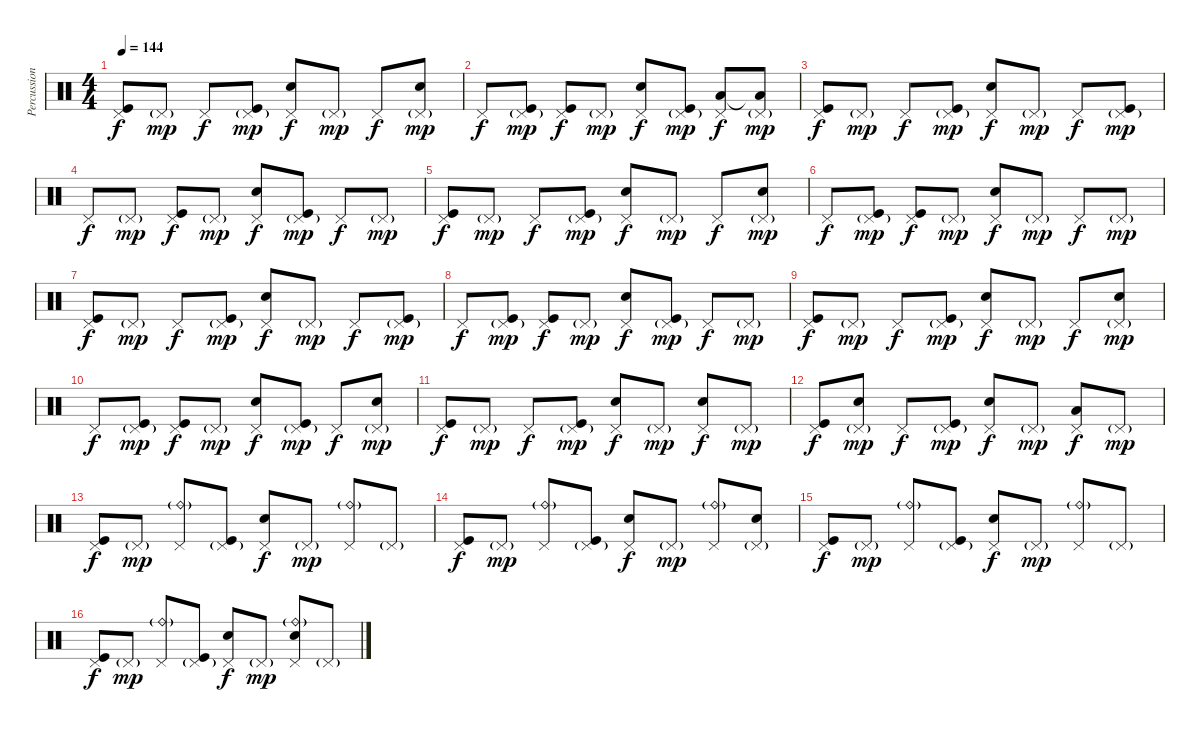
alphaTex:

\track ("Percussion" "Percussion") {instrument percussion}
\staff {score}
\articulation defaults
\ts (4 4)
\tempo 144
\clef neutral
\ks c
("Pedal Hi-Hat (hit)" "Kick (hit)").8{dy f} "Pedal Hi-Hat (hit)"{g}.8{dy mp} "Pedal Hi-Hat (hit)".8{dy f} ("Pedal Hi-Hat (hit)"{g} "Kick (hit)").8{dy mp} ("Pedal Hi-Hat (hit)" "Snare (hit) 2").8{dy f} "Pedal Hi-Hat (hit)"{g}.8{dy mp} "Pedal Hi-Hat (hit)".8{dy f} ("Pedal Hi-Hat (hit)"{g} "Snare (hit) 2").8{dy mp} |
"Pedal Hi-Hat (hit)".8{dy f} ("Pedal Hi-Hat (hit)"{g} "Kick (hit)").8{dy mp} ("Pedal Hi-Hat (hit)" "Kick (hit)").8{dy f} "Pedal Hi-Hat (hit)"{g}.8{dy mp} ("Pedal Hi-Hat (hit)" "Snare (hit) 2").8{dy f} ("Pedal Hi-Hat (hit)"{g} "Kick (hit)").8{dy mp} ("Pedal Hi-Hat (hit)" "Low Tom (hit)").8{dy f} ("Pedal Hi-Hat (hit)"{g} "Low Tom (hit)"{t}).8{dy mp} |
("Pedal Hi-Hat (hit)" "Kick (hit)").8{dy f} "Pedal Hi-Hat (hit)"{g}.8{dy mp} "Pedal Hi-Hat (hit)".8{dy f} ("Pedal Hi-Hat (hit)"{g} "Kick (hit)").8{dy mp} ("Pedal Hi-Hat (hit)" "Snare (hit) 2").8{dy f} "Pedal Hi-Hat (hit)"{g}.8{dy mp} "Pedal Hi-Hat (hit)".8{dy f} ("Pedal Hi-Hat (hit)"{g} "Kick (hit)").8{dy mp} |
"Pedal Hi-Hat (hit)".8{dy f} "Pedal Hi-Hat (hit)"{g}.8{dy mp} ("Pedal Hi-Hat (hit)" "Kick (hit)").8{dy f} "Pedal Hi-Hat (hit)"{g}.8{dy mp} ("Pedal Hi-Hat (hit)" "Snare (hit) 2").8{dy f} ("Pedal Hi-Hat (hit)"{g} "Kick (hit)").8{dy mp} "Pedal Hi-Hat (hit)".8{dy f} "Pedal Hi-Hat (hit)"{g}.8{dy mp} |
("Pedal Hi-Hat (hit)" "Kick (hit)").8{dy f} "Pedal Hi-Hat (hit)"{g}.8{dy mp} "Pedal Hi-Hat (hit)".8{dy f} ("Pedal Hi-Hat (hit)"{g} "Kick (hit)").8{dy mp} ("Pedal Hi-Hat (hit)" "Snare (hit) 2").8{dy f} "Pedal Hi-Hat (hit)"{g}.8{dy mp} "Pedal Hi-Hat (hit)".8{dy f} ("Pedal Hi-Hat (hit)"{g} "Snare (hit) 2").8{dy mp} |
"Pedal Hi-Hat (hit)".8{dy f} ("Pedal Hi-Hat (hit)"{g} "Kick (hit)").8{dy mp} ("Pedal Hi-Hat (hit)" "Kick (hit)").8{dy f} "Pedal Hi-Hat (hit)"{g}.8{dy mp} ("Pedal Hi-Hat (hit)" "Snare (hit) 2").8{dy f} "Pedal Hi-Hat (hit)"{g}.8{dy mp} "Pedal Hi-Hat (hit)".8{dy f} "Pedal Hi-Hat (hit)"{g}.8{dy mp} |
("Pedal Hi-Hat (hit)" "Kick (hit)").8{dy f} "Pedal Hi-Hat (hit)"{g}.8{dy mp} "Pedal Hi-Hat (hit)".8{dy f} ("Pedal Hi-Hat (hit)"{g} "Kick (hit)").8{dy mp} ("Pedal Hi-Hat (hit)" "Snare (hit) 2").8{dy f} "Pedal Hi-Hat (hit)"{g}.8{dy mp} "Pedal Hi-Hat (hit)".8{dy f} ("Pedal Hi-Hat (hit)"{g} "Kick (hit)").8{dy mp} |
"Pedal Hi-Hat (hit)".8{dy f} ("Pedal Hi-Hat (hit)"{g} "Kick (hit)").8{dy mp} ("Pedal Hi-Hat (hit)" "Kick (hit)").8{dy f} "Pedal Hi-Hat (hit)"{g}.8{dy mp} ("Pedal Hi-Hat (hit)" "Snare (hit) 2").8{dy f} ("Pedal Hi-Hat (hit)"{g} "Kick (hit)").8{dy mp} "Pedal Hi-Hat (hit)".8{dy f} "Pedal Hi-Hat (hit)"{g}.8{dy mp} |
("Pedal Hi-Hat (hit)" "Kick (hit)").8{dy f} "Pedal Hi-Hat (hit)"{g}.8{dy mp} "Pedal Hi-Hat (hit)".8{dy f} ("Pedal Hi-Hat (hit)"{g} "Kick (hit)").8{dy mp} ("Pedal Hi-Hat (hit)" "Snare (hit) 2").8{dy f} "Pedal Hi-Hat (hit)"{g}.8{dy mp} "Pedal Hi-Hat (hit)".8{dy f} ("Pedal Hi-Hat (hit)"{g} "Snare (hit) 2").8{dy mp} |
"Pedal Hi-Hat (hit)".8{dy f} ("Pedal Hi-Hat (hit)"{g} "Kick (hit)").8{dy mp} ("Pedal Hi-Hat (hit)" "Kick (hit)").8{dy f} "Pedal Hi-Hat (hit)"{g}.8{dy mp} ("Pedal Hi-Hat (hit)" "Snare (hit) 2").8{dy f} ("Pedal Hi-Hat (hit)"{g} "Kick (hit)").8{dy mp} "Pedal Hi-Hat (hit)".8{dy f} ("Pedal Hi-Hat (hit)"{g} "Snare (hit) 2").8{dy mp} |
("Pedal Hi-Hat (hit)" "Kick (hit)").8{dy f} "Pedal Hi-Hat (hit)"{g}.8{dy mp} "Pedal Hi-Hat (hit)".8{dy f} ("Pedal Hi-Hat (hit)"{g} "Kick (hit)").8{dy mp} ("Pedal Hi-Hat (hit)" "Snare (hit) 2").8{dy f} "Pedal Hi-Hat (hit)"{g}.8{dy mp} ("Pedal Hi-Hat (hit)" "Snare (hit) 2").8{dy f} "Pedal Hi-Hat (hit)"{g}.8{dy mp} |
("Pedal Hi-Hat (hit)" "Kick (hit)").8{dy f} ("Pedal Hi-Hat (hit)"{g} "Snare (hit) 2").8{dy mp} "Pedal Hi-Hat (hit)".8{dy f} ("Pedal Hi-Hat (hit)"{g} "Kick (hit)").8{dy mp} ("Pedal Hi-Hat (hit)" "Snare (hit) 2").8{dy f} "Pedal Hi-Hat (hit)"{g}.8{dy mp} ("Pedal Hi-Hat (hit)" "Low Tom (hit)").8{dy f} "Pedal Hi-Hat (hit)"{g}.8{dy mp} |
("Pedal Hi-Hat (hit)" "Kick (hit)").8{dy f} "Pedal Hi-Hat (hit)"{g}.8{dy mp} ("Ride (bell)"{g} "Pedal Hi-Hat (hit)").8 ("Pedal Hi-Hat (hit)"{g} "Kick (hit)").8 ("Pedal Hi-Hat (hit)" "Snare (hit) 2").8{dy f} "Pedal Hi-Hat (hit)"{g}.8{dy mp} ("Ride (bell)"{g} "Pedal Hi-Hat (hit)").8 "Pedal Hi-Hat (hit)"{g}.8 |
("Pedal Hi-Hat (hit)" "Kick (hit)").8{dy f} "Pedal Hi-Hat (hit)"{g}.8{dy mp} ("Ride (bell)"{g} "Pedal Hi-Hat (hit)").8 ("Pedal Hi-Hat (hit)"{g} "Kick (hit)").8 ("Pedal Hi-Hat (hit)" "Snare (hit) 2").8{dy f} "Pedal Hi-Hat (hit)"{g}.8{dy mp} ("Ride (bell)"{g} "Pedal Hi-Hat (hit)").8 ("Pedal Hi-Hat (hit)"{g} "Snare (hit) 2").8 |
("Pedal Hi-Hat (hit)" "Kick (hit)").8{dy f} "Pedal Hi-Hat (hit)"{g}.8{dy mp} ("Ride (bell)"{g} "Pedal Hi-Hat (hit)").8 ("Pedal Hi-Hat (hit)"{g} "Kick (hit)").8 ("Pedal Hi-Hat (hit)" "Snare (hit) 2").8{dy f} "Pedal Hi-Hat (hit)"{g}.8{dy mp} ("Ride (bell)"{g} "Pedal Hi-Hat (hit)").8 "Pedal Hi-Hat (hit)"{g}.8 |
("Pedal Hi-Hat (hit)" "Kick (hit)").8{dy f} "Pedal Hi-Hat (hit)"{g}.8{dy mp} ("Ride (bell)"{g} "Pedal Hi-Hat (hit)").8 ("Pedal Hi-Hat (hit)"{g} "Kick (hit)").8 ("Pedal Hi-Hat (hit)" "Snare (hit) 2").8{dy f} "Pedal Hi-Hat (hit)"{g}.8{dy mp} ("Ride (bell)"{g} "Pedal Hi-Hat (hit)" "Snare (hit) 2").8 "Pedal Hi-Hat (hit)"{g}.8
